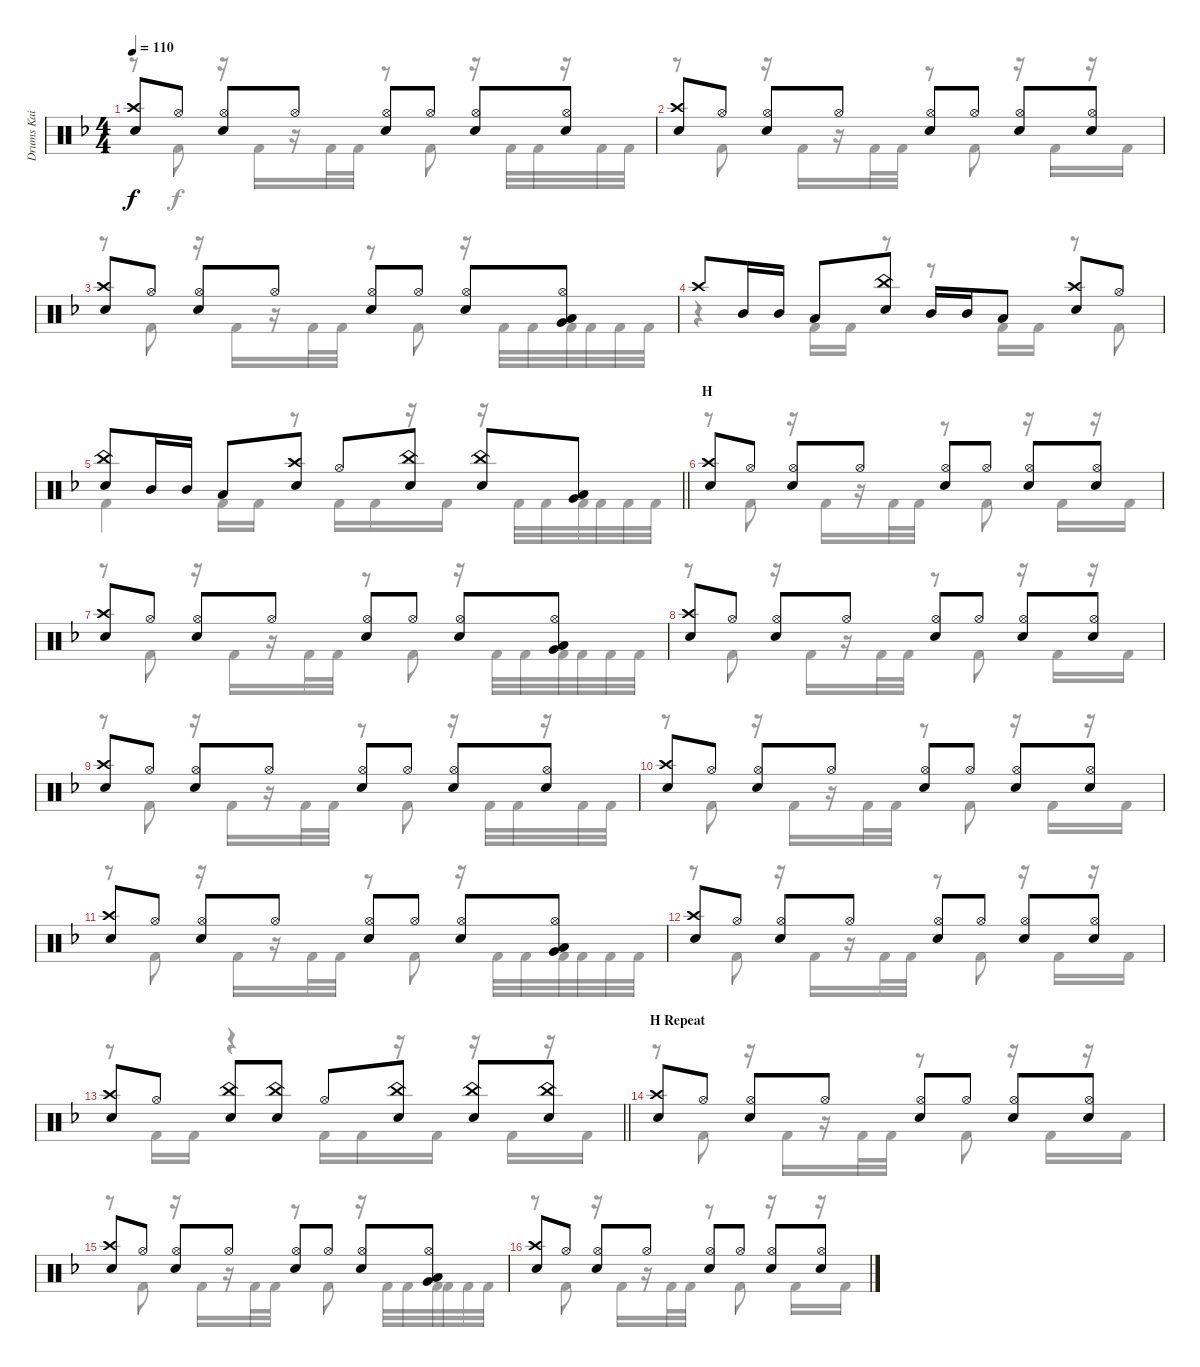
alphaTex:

\track ("Drums Kai" "Drums Kai") {instrument percussion}
\staff {score}
\articulation defaults
\voice
\ts (4 4)
\tempo 110
\clef neutral
\ks f
("Crash high (hit)" "Electric Snare (hit)").8{dy f} "Hi-Hat (open)".8 ("Hi-Hat (open)" "Electric Snare (hit)").8 "Hi-Hat (open)".8 ("Hi-Hat (open)" "Electric Snare (hit)").8 "Hi-Hat (open)".8 ("Hi-Hat (open)" "Electric Snare (hit)").8 ("Hi-Hat (open)" "Electric Snare (hit)").8 |
("Crash high (hit)" "Electric Snare (hit)").8 "Hi-Hat (open)".8 ("Hi-Hat (open)" "Electric Snare (hit)").8 "Hi-Hat (open)".8 ("Hi-Hat (open)" "Electric Snare (hit)").8 "Hi-Hat (open)".8 ("Hi-Hat (open)" "Electric Snare (hit)").8 ("Hi-Hat (open)" "Electric Snare (hit)").8 |
("Crash high (hit)" "Electric Snare (hit)").8 "Hi-Hat (open)".8 ("Hi-Hat (open)" "Electric Snare (hit)").8 "Hi-Hat (open)".8 ("Hi-Hat (open)" "Electric Snare (hit)").8 "Hi-Hat (open)".8 ("Hi-Hat (open)" "Electric Snare (hit)").8 ("Hi-Hat (open)" "Low Tom (hit)" "Very Low Tom (hit)").8 |
"Crash high (hit)".8 "Mid Tom (hit)".16 "Mid Tom (hit)".16 "Low Tom (hit)".8 ("China (hit)" "Electric Snare (hit)").8 "Mid Tom (hit)".16 "Mid Tom (hit)".16 "Low Tom (hit)".8 ("Crash high (hit)" "Electric Snare (hit)").8 "Hi-Hat (open)".8 |
\barLineRight lightlight
("China (hit)" "Electric Snare (hit)").8 "Mid Tom (hit)".16 "Mid Tom (hit)".16 "Low Tom (hit)".8 ("Crash high (hit)" "Electric Snare (hit)").8 "Hi-Hat (open)".8 ("China (hit)" "Electric Snare (hit)").8 ("China (hit)" "Electric Snare (hit)").8 ("Low Tom (hit)" "Very Low Tom (hit)").8 |
\section ("" "H")
("Crash high (hit)" "Electric Snare (hit)").8 "Hi-Hat (open)".8 ("Hi-Hat (open)" "Electric Snare (hit)").8 "Hi-Hat (open)".8 ("Hi-Hat (open)" "Electric Snare (hit)").8 "Hi-Hat (open)".8 ("Hi-Hat (open)" "Electric Snare (hit)").8 ("Hi-Hat (open)" "Electric Snare (hit)").8 |
("Crash high (hit)" "Electric Snare (hit)").8 "Hi-Hat (open)".8 ("Hi-Hat (open)" "Electric Snare (hit)").8 "Hi-Hat (open)".8 ("Hi-Hat (open)" "Electric Snare (hit)").8 "Hi-Hat (open)".8 ("Hi-Hat (open)" "Electric Snare (hit)").8 ("Hi-Hat (open)" "Low Tom (hit)" "Very Low Tom (hit)").8 |
("Crash high (hit)" "Electric Snare (hit)").8 "Hi-Hat (open)".8 ("Hi-Hat (open)" "Electric Snare (hit)").8 "Hi-Hat (open)".8 ("Hi-Hat (open)" "Electric Snare (hit)").8 "Hi-Hat (open)".8 ("Hi-Hat (open)" "Electric Snare (hit)").8 ("Hi-Hat (open)" "Electric Snare (hit)").8 |
("Crash high (hit)" "Electric Snare (hit)").8 "Hi-Hat (open)".8 ("Hi-Hat (open)" "Electric Snare (hit)").8 "Hi-Hat (open)".8 ("Hi-Hat (open)" "Electric Snare (hit)").8 "Hi-Hat (open)".8 ("Hi-Hat (open)" "Electric Snare (hit)").8 ("Hi-Hat (open)" "Electric Snare (hit)").8 |
("Crash high (hit)" "Electric Snare (hit)").8 "Hi-Hat (open)".8 ("Hi-Hat (open)" "Electric Snare (hit)").8 "Hi-Hat (open)".8 ("Hi-Hat (open)" "Electric Snare (hit)").8 "Hi-Hat (open)".8 ("Hi-Hat (open)" "Electric Snare (hit)").8 ("Hi-Hat (open)" "Electric Snare (hit)").8 |
("Crash high (hit)" "Electric Snare (hit)").8 "Hi-Hat (open)".8 ("Hi-Hat (open)" "Electric Snare (hit)").8 "Hi-Hat (open)".8 ("Hi-Hat (open)" "Electric Snare (hit)").8 "Hi-Hat (open)".8 ("Hi-Hat (open)" "Electric Snare (hit)").8 ("Hi-Hat (open)" "Low Tom (hit)" "Very Low Tom (hit)").8 |
("Crash high (hit)" "Electric Snare (hit)").8 "Hi-Hat (open)".8 ("Hi-Hat (open)" "Electric Snare (hit)").8 "Hi-Hat (open)".8 ("Hi-Hat (open)" "Electric Snare (hit)").8 "Hi-Hat (open)".8 ("Hi-Hat (open)" "Electric Snare (hit)").8 ("Hi-Hat (open)" "Electric Snare (hit)").8 |
\barLineRight lightlight
("Crash high (hit)" "Electric Snare (hit)").8 "Hi-Hat (open)".8 ("China (hit)" "Electric Snare (hit)").8 ("China (hit)" "Electric Snare (hit)").8 "Hi-Hat (open)".8 ("China (hit)" "Electric Snare (hit)").8 ("China (hit)" "Electric Snare (hit)").8 ("China (hit)" "Electric Snare (hit)").8 |
\section ("" "H Repeat")
("Crash high (hit)" "Electric Snare (hit)").8 "Hi-Hat (open)".8 ("Hi-Hat (open)" "Electric Snare (hit)").8 "Hi-Hat (open)".8 ("Hi-Hat (open)" "Electric Snare (hit)").8 "Hi-Hat (open)".8 ("Hi-Hat (open)" "Electric Snare (hit)").8 ("Hi-Hat (open)" "Electric Snare (hit)").8 |
("Crash high (hit)" "Electric Snare (hit)").8 "Hi-Hat (open)".8 ("Hi-Hat (open)" "Electric Snare (hit)").8 "Hi-Hat (open)".8 ("Hi-Hat (open)" "Electric Snare (hit)").8 "Hi-Hat (open)".8 ("Hi-Hat (open)" "Electric Snare (hit)").8 ("Hi-Hat (open)" "Low Tom (hit)" "Very Low Tom (hit)").8 |
("Crash high (hit)" "Electric Snare (hit)").8 "Hi-Hat (open)".8 ("Hi-Hat (open)" "Electric Snare (hit)").8 "Hi-Hat (open)".8 ("Hi-Hat (open)" "Electric Snare (hit)").8 "Hi-Hat (open)".8 ("Hi-Hat (open)" "Electric Snare (hit)").8 ("Hi-Hat (open)" "Electric Snare (hit)").8
\voice
\clef neutral
\ottava regular
\simile none
\ks f
r.8{dy f} "Kick (hit) 2".8 r.16 "Kick (hit) 2".16 r.16 "Kick (hit) 2".32 "Kick (hit) 2".32 r.8 "Kick (hit) 2".8 r.16 "Kick (hit) 2".32 "Kick (hit) 2".32 r.16 "Kick (hit) 2".32 "Kick (hit) 2".32 |
r.8 "Kick (hit) 2".8 r.16 "Kick (hit) 2".16 r.16 "Kick (hit) 2".32 "Kick (hit) 2".32 r.8 "Kick (hit) 2".8 r.16 "Kick (hit) 2".16 r.16 "Kick (hit) 2".16 |
r.8 "Kick (hit) 2".8 r.16 "Kick (hit) 2".16 r.16 "Kick (hit) 2".32 "Kick (hit) 2".32 r.8 "Kick (hit) 2".8 r.16 "Kick (hit) 2".32 "Kick (hit) 2".32 "Kick (hit) 2".32 "Kick (hit) 2".32 "Kick (hit) 2".32 "Kick (hit) 2".32 |
r.4 "Kick (hit) 2".16 "Kick (hit) 2".16 r.8 r.8 "Kick (hit) 2".16 "Kick (hit) 2".16 r.8 "Kick (hit) 2".8 |
\barLineRight lightlight "Kick (hit) 2".4 "Kick (hit) 2".16 "Kick (hit) 2".16
r.8 "Kick (hit) 2".16 "Kick (hit) 2".16 r.16 "Kick (hit) 2".16 r.16 "Kick (hit) 2".32 "Kick (hit) 2".32 "Kick (hit) 2".32 "Kick (hit) 2".32 "Kick (hit) 2".32 "Kick (hit) 2".32 |
r.8 "Kick (hit) 2".8 r.16 "Kick (hit) 2".16 r.16 "Kick (hit) 2".32 "Kick (hit) 2".32 r.8 "Kick (hit) 2".8 r.16 "Kick (hit) 2".16 r.16 "Kick (hit) 2".16 |
r.8 "Kick (hit) 2".8 r.16 "Kick (hit) 2".16 r.16 "Kick (hit) 2".32 "Kick (hit) 2".32 r.8 "Kick (hit) 2".8 r.16 "Kick (hit) 2".32 "Kick (hit) 2".32 "Kick (hit) 2".32 "Kick (hit) 2".32 "Kick (hit) 2".32 "Kick (hit) 2".32 |
r.8 "Kick (hit) 2".8 r.16 "Kick (hit) 2".16 r.16 "Kick (hit) 2".32 "Kick (hit) 2".32 r.8 "Kick (hit) 2".8 r.16 "Kick (hit) 2".16 r.16 "Kick (hit) 2".16 |
r.8 "Kick (hit) 2".8 r.16 "Kick (hit) 2".16 r.16 "Kick (hit) 2".32 "Kick (hit) 2".32 r.8 "Kick (hit) 2".8 r.16 "Kick (hit) 2".32 "Kick (hit) 2".32 r.16 "Kick (hit) 2".32 "Kick (hit) 2".32 |
r.8 "Kick (hit) 2".8 r.16 "Kick (hit) 2".16 r.16 "Kick (hit) 2".32 "Kick (hit) 2".32 r.8 "Kick (hit) 2".8 r.16 "Kick (hit) 2".16 r.16 "Kick (hit) 2".16 |
r.8 "Kick (hit) 2".8 r.16 "Kick (hit) 2".16 r.16 "Kick (hit) 2".32 "Kick (hit) 2".32 r.8 "Kick (hit) 2".8 r.16 "Kick (hit) 2".32 "Kick (hit) 2".32 "Kick (hit) 2".32 "Kick (hit) 2".32 "Kick (hit) 2".32 "Kick (hit) 2".32 |
r.8 "Kick (hit) 2".8 r.16 "Kick (hit) 2".16 r.16 "Kick (hit) 2".32 "Kick (hit) 2".32 r.8 "Kick (hit) 2".8 r.16 "Kick (hit) 2".16 r.16 "Kick (hit) 2".16 |
\barLineRight lightlight
r.8 "Kick (hit) 2".16 "Kick (hit) 2".16 r.4 "Kick (hit) 2".16 "Kick (hit) 2".16 r.16 "Kick (hit) 2".16 r.16 "Kick (hit) 2".16 r.16 "Kick (hit) 2".16 |
r.8 "Kick (hit) 2".8 r.16 "Kick (hit) 2".16 r.16 "Kick (hit) 2".32 "Kick (hit) 2".32 r.8 "Kick (hit) 2".8 r.16 "Kick (hit) 2".16 r.16 "Kick (hit) 2".16 |
r.8 "Kick (hit) 2".8 r.16 "Kick (hit) 2".16 r.16 "Kick (hit) 2".32 "Kick (hit) 2".32 r.8 "Kick (hit) 2".8 r.16 "Kick (hit) 2".32 "Kick (hit) 2".32 "Kick (hit) 2".32 "Kick (hit) 2".32 "Kick (hit) 2".32 "Kick (hit) 2".32 |
r.8 "Kick (hit) 2".8 r.16 "Kick (hit) 2".16 r.16 "Kick (hit) 2".32 "Kick (hit) 2".32 r.8 "Kick (hit) 2".8 r.16 "Kick (hit) 2".16 r.16 "Kick (hit) 2".16
